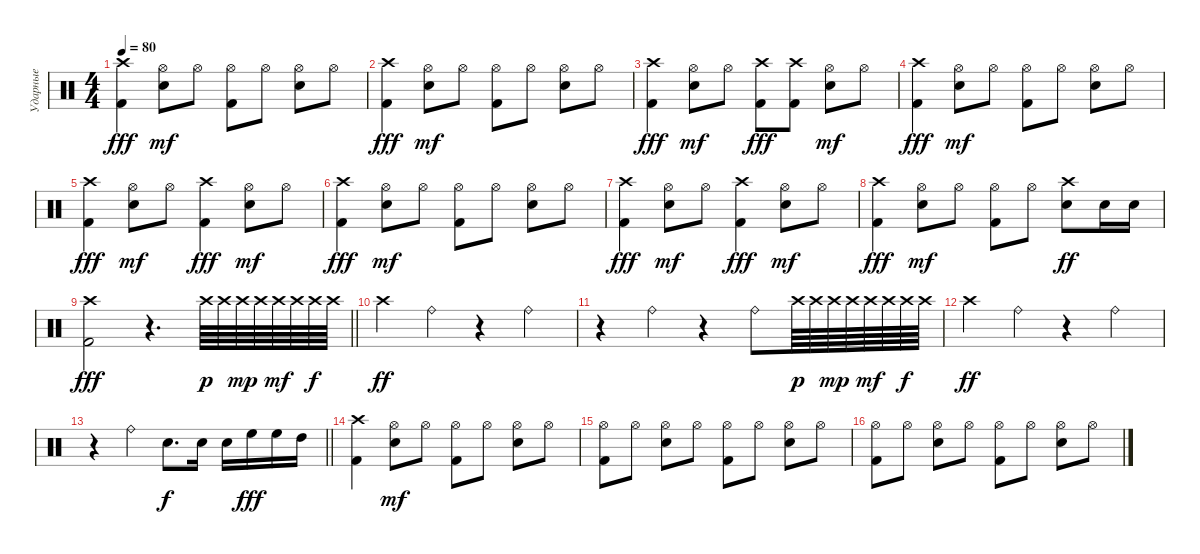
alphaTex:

\track ("Ударные" "Ударные") {instrument percussion}
\staff {score}
\articulation defaults
\ts (4 4)
\tempo 80
\clef neutral
\ks c
("Kick (hit) 2" "Crash high (hit)").4{dy fff} ("Snare (hit) 2" "Hi-Hat (open)").8{dy mf} "Hi-Hat (open)".8 ("Kick (hit) 2" "Hi-Hat (open)").8 "Hi-Hat (open)".8 ("Snare (hit) 2" "Hi-Hat (open)").8 "Hi-Hat (open)".8 |
("Kick (hit) 2" "Crash high (hit)").4{dy fff} ("Snare (hit) 2" "Hi-Hat (open)").8{dy mf} "Hi-Hat (open)".8 ("Kick (hit) 2" "Hi-Hat (open)").8 "Hi-Hat (open)".8 ("Snare (hit) 2" "Hi-Hat (open)").8 "Hi-Hat (open)".8 |
("Kick (hit) 2" "Crash high (hit)").4{dy fff} ("Snare (hit) 2" "Hi-Hat (open)").8{dy mf} "Hi-Hat (open)".8 ("Kick (hit) 2" "Crash high (hit)").8{dy fff} ("Kick (hit) 2" "Crash high (hit)").8 ("Snare (hit) 2" "Hi-Hat (open)").8{dy mf} "Hi-Hat (open)".8 |
("Kick (hit) 2" "Crash high (hit)").4{dy fff} ("Snare (hit) 2" "Hi-Hat (open)").8{dy mf} "Hi-Hat (open)".8 ("Kick (hit) 2" "Hi-Hat (open)").8 "Hi-Hat (open)".8 ("Snare (hit) 2" "Hi-Hat (open)").8 "Hi-Hat (open)".8 |
("Kick (hit) 2" "Crash high (hit)").4{dy fff} ("Snare (hit) 2" "Hi-Hat (open)").8{dy mf} "Hi-Hat (open)".8 ("Kick (hit) 2" "Crash high (hit)").4{dy fff} ("Snare (hit) 2" "Hi-Hat (open)").8{dy mf} "Hi-Hat (open)".8 |
("Kick (hit) 2" "Crash high (hit)").4{dy fff} ("Snare (hit) 2" "Hi-Hat (open)").8{dy mf} "Hi-Hat (open)".8 ("Kick (hit) 2" "Hi-Hat (open)").8 "Hi-Hat (open)".8 ("Snare (hit) 2" "Hi-Hat (open)").8 "Hi-Hat (open)".8 |
("Kick (hit) 2" "Crash high (hit)").4{dy fff} ("Snare (hit) 2" "Hi-Hat (open)").8{dy mf} "Hi-Hat (open)".8 ("Kick (hit) 2" "Crash high (hit)").4{dy fff} ("Snare (hit) 2" "Hi-Hat (open)").8{dy mf} "Hi-Hat (open)".8 |
("Kick (hit) 2" "Crash high (hit)").4{dy fff} ("Snare (hit) 2" "Hi-Hat (open)").8{dy mf} "Hi-Hat (open)".8 ("Kick (hit) 2" "Hi-Hat (open)").8 "Hi-Hat (open)".8 ("Snare (hit) 2" "Crash high (hit)").8{dy ff} "Electric Snare (hit)".16 "Electric Snare (hit)".16 |
\barLineRight lightlight
("Kick (hit) 2" "Crash high (hit)").2{dy fff} r.4{d} "Crash high (hit)".64{dy p} "Crash high (hit)".64 "Crash high (hit)".64{dy mp} "Crash high (hit)".64 "Crash high (hit)".64{dy mf} "Crash high (hit)".64 "Crash high (hit)".64{dy f} "Crash high (hit)".64 |
"Crash high (hit)".4{dy ff} "Ride (bell)".4 r.4 "Ride (bell)".4 |
r.4 "Ride (bell)".4 r.4 "Ride (bell)".8 "Crash high (hit)".64{dy p} "Crash high (hit)".64 "Crash high (hit)".64{dy mp} "Crash high (hit)".64 "Crash high (hit)".64{dy mf} "Crash high (hit)".64 "Crash high (hit)".64{dy f} "Crash high (hit)".64 |
"Crash high (hit)".4{dy ff} "Ride (bell)".4 r.4 "Ride (bell)".4 |
\barLineRight lightlight
r.4 "Ride (bell)".4 "Snare (hit) 2".8{d dy f} "Snare (hit) 2".16 "Snare (hit) 2".16 "High Floor Tom (hit)".16{dy fff} "High Floor Tom (hit)".16 "High Tom (hit)".16 |
("Kick (hit) 2" "Crash high (hit)").4 ("Snare (hit) 2" "Hi-Hat (open)").8{dy mf} "Hi-Hat (open)".8 ("Kick (hit) 2" "Hi-Hat (open)").8 "Hi-Hat (open)".8 ("Snare (hit) 2" "Hi-Hat (open)").8 "Hi-Hat (open)".8 |
("Kick (hit) 2" "Hi-Hat (open)").8 "Hi-Hat (open)".8 ("Snare (hit) 2" "Hi-Hat (open)").8 "Hi-Hat (open)".8 ("Kick (hit) 2" "Hi-Hat (open)").8 "Hi-Hat (open)".8 ("Snare (hit) 2" "Hi-Hat (open)").8 "Hi-Hat (open)".8 |
("Kick (hit) 2" "Hi-Hat (open)").8 "Hi-Hat (open)".8 ("Snare (hit) 2" "Hi-Hat (open)").8 "Hi-Hat (open)".8 ("Kick (hit) 2" "Hi-Hat (open)").8 "Hi-Hat (open)".8 ("Snare (hit) 2" "Hi-Hat (open)").8 "Hi-Hat (open)".8
